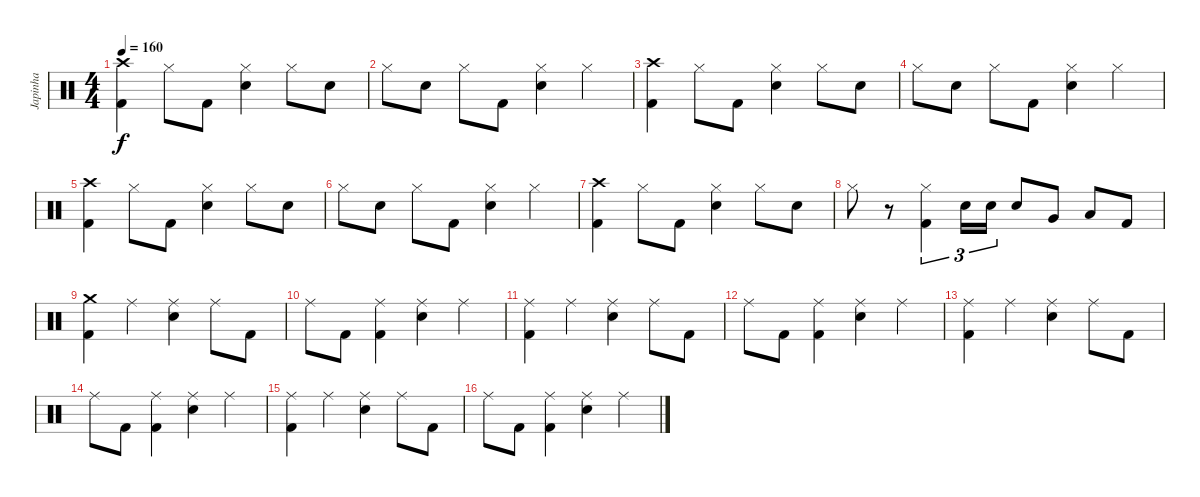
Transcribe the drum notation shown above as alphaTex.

\track ("Japinha" "Japinha") {instrument percussion}
\staff {score}
\articulation defaults
\ts (4 4)
\tempo 160
\clef neutral
\ks c
("Crash high (hit)" "Kick (hit) 2").4{dy f} "Hi-Hat (closed)".8 "Kick (hit) 2".8 ("Hi-Hat (closed)" "Snare (hit) 2").4 "Hi-Hat (closed)".8 "Snare (hit) 2".8 |
"Hi-Hat (closed)".8 "Snare (hit) 2".8 "Hi-Hat (closed)".8 "Kick (hit) 2".8 ("Hi-Hat (closed)" "Snare (hit) 2").4 "Hi-Hat (closed)".4 |
("Crash high (hit)" "Kick (hit) 2").4 "Hi-Hat (closed)".8 "Kick (hit) 2".8 ("Hi-Hat (closed)" "Snare (hit) 2").4 "Hi-Hat (closed)".8 "Snare (hit) 2".8 |
"Hi-Hat (closed)".8 "Snare (hit) 2".8 "Hi-Hat (closed)".8 "Kick (hit) 2".8 ("Hi-Hat (closed)" "Snare (hit) 2").4 "Hi-Hat (closed)".4 |
("Crash high (hit)" "Kick (hit) 2").4 "Hi-Hat (closed)".8 "Kick (hit) 2".8 ("Hi-Hat (closed)" "Snare (hit) 2").4 "Hi-Hat (closed)".8 "Snare (hit) 2".8 |
"Hi-Hat (closed)".8 "Snare (hit) 2".8 "Hi-Hat (closed)".8 "Kick (hit) 2".8 ("Hi-Hat (closed)" "Snare (hit) 2").4 "Hi-Hat (closed)".4 |
("Crash high (hit)" "Kick (hit) 2").4 "Hi-Hat (closed)".8 "Kick (hit) 2".8 ("Hi-Hat (closed)" "Snare (hit) 2").4 "Hi-Hat (closed)".8 "Snare (hit) 2".8 |
"Hi-Hat (closed)".8 r.8 ("Hi-Hat (closed)" "Kick (hit) 2").4{tu (3 2)} "Snare (hit) 2".16{tu (3 2)} "Snare (hit) 2".16{tu (3 2)} "Snare (hit) 2".8 "Very Low Tom (hit)".8 "Low Tom (hit)".8 "Kick (hit) 2".8 |
("Crash medium (hit)" "Kick (hit) 2").4 "Ride (middle)".4 ("Ride (middle)" "Snare (hit) 2").4 "Ride (middle)".8 "Kick (hit) 2".8 |
"Ride (middle)".8 "Kick (hit) 2".8 ("Ride (middle)" "Kick (hit) 2").4 ("Ride (middle)" "Snare (hit) 2").4 "Ride (middle)".4 |
("Ride (middle)" "Kick (hit) 2").4 "Ride (middle)".4 ("Ride (middle)" "Snare (hit) 2").4 "Ride (middle)".8 "Kick (hit) 2".8 |
"Ride (middle)".8 "Kick (hit) 2".8 ("Ride (middle)" "Kick (hit) 2").4 ("Ride (middle)" "Snare (hit) 2").4 "Ride (middle)".4 |
("Ride (middle)" "Kick (hit) 2").4 "Ride (middle)".4 ("Ride (middle)" "Snare (hit) 2").4 "Ride (middle)".8 "Kick (hit) 2".8 |
"Ride (middle)".8 "Kick (hit) 2".8 ("Ride (middle)" "Kick (hit) 2").4 ("Ride (middle)" "Snare (hit) 2").4 "Ride (middle)".4 |
("Ride (middle)" "Kick (hit) 2").4 "Ride (middle)".4 ("Ride (middle)" "Snare (hit) 2").4 "Ride (middle)".8 "Kick (hit) 2".8 |
"Ride (middle)".8 "Kick (hit) 2".8 ("Ride (middle)" "Kick (hit) 2").4 ("Ride (middle)" "Snare (hit) 2").4 "Ride (middle)".4
